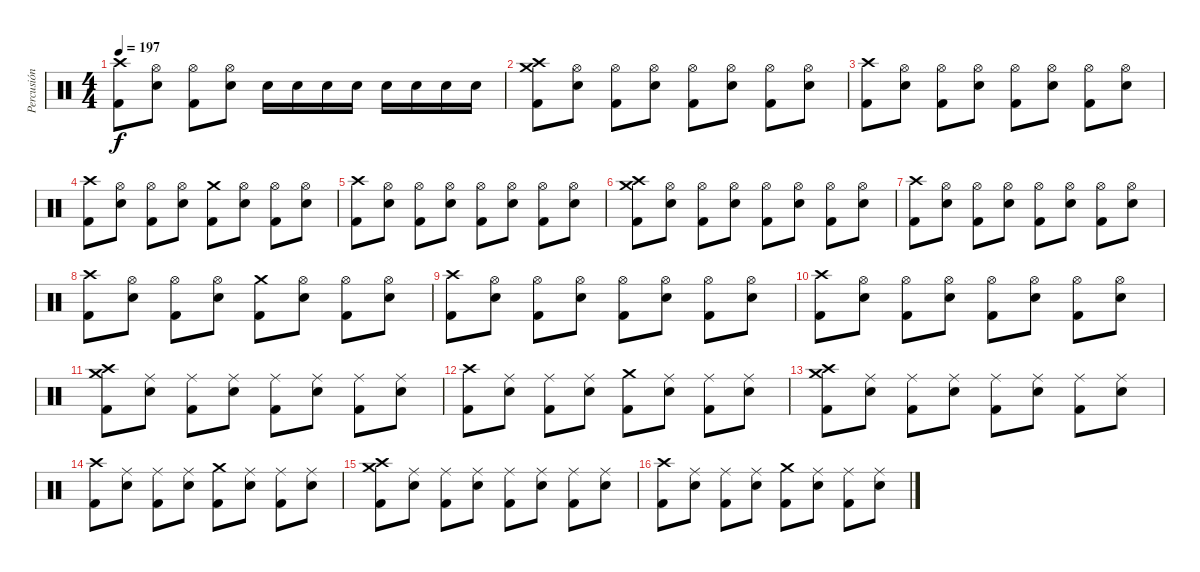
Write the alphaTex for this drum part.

\track ("Percusión" "Percusión") {instrument percussion}
\staff {score}
\articulation defaults
\ts (4 4)
\tempo 197
\clef neutral
\ks c
("Crash high (hit)" "Kick (hit) 2").8{dy f} ("Hi-Hat (open)" "Electric Snare (hit)").8 ("Hi-Hat (open)" "Kick (hit) 2").8 ("Hi-Hat (open)" "Electric Snare (hit)").8 "Electric Snare (hit)".16 "Electric Snare (hit)".16 "Electric Snare (hit)".16 "Electric Snare (hit)".16 "Electric Snare (hit)".16 "Electric Snare (hit)".16 "Electric Snare (hit)".16 "Electric Snare (hit)".16 |
("Crash high (hit)" "Crash medium (hit)" "Kick (hit) 2").8 ("Hi-Hat (open)" "Electric Snare (hit)").8 ("Hi-Hat (open)" "Kick (hit) 2").8 ("Hi-Hat (open)" "Electric Snare (hit)").8 ("Hi-Hat (open)" "Kick (hit) 2").8 ("Hi-Hat (open)" "Electric Snare (hit)").8 ("Hi-Hat (open)" "Kick (hit) 2").8 ("Hi-Hat (open)" "Electric Snare (hit)").8 |
("Crash high (hit)" "Kick (hit) 2").8 ("Hi-Hat (open)" "Electric Snare (hit)").8 ("Hi-Hat (open)" "Kick (hit) 2").8 ("Hi-Hat (open)" "Electric Snare (hit)").8 ("Hi-Hat (open)" "Kick (hit) 2").8 ("Hi-Hat (open)" "Electric Snare (hit)").8 ("Hi-Hat (open)" "Kick (hit) 2").8 ("Hi-Hat (open)" "Electric Snare (hit)").8 |
("Crash high (hit)" "Kick (hit) 2").8 ("Hi-Hat (open)" "Electric Snare (hit)").8 ("Hi-Hat (open)" "Kick (hit) 2").8 ("Hi-Hat (open)" "Electric Snare (hit)").8 ("Crash medium (hit)" "Kick (hit) 2").8 ("Hi-Hat (open)" "Electric Snare (hit)").8 ("Hi-Hat (open)" "Kick (hit) 2").8 ("Hi-Hat (open)" "Electric Snare (hit)").8 |
("Crash high (hit)" "Kick (hit) 2").8 ("Hi-Hat (open)" "Electric Snare (hit)").8 ("Hi-Hat (open)" "Kick (hit) 2").8 ("Hi-Hat (open)" "Electric Snare (hit)").8 ("Hi-Hat (open)" "Kick (hit) 2").8 ("Hi-Hat (open)" "Electric Snare (hit)").8 ("Hi-Hat (open)" "Kick (hit) 2").8 ("Hi-Hat (open)" "Electric Snare (hit)").8 |
("Crash high (hit)" "Crash medium (hit)" "Kick (hit) 2").8 ("Hi-Hat (open)" "Electric Snare (hit)").8 ("Hi-Hat (open)" "Kick (hit) 2").8 ("Hi-Hat (open)" "Electric Snare (hit)").8 ("Hi-Hat (open)" "Kick (hit) 2").8 ("Hi-Hat (open)" "Electric Snare (hit)").8 ("Hi-Hat (open)" "Kick (hit) 2").8 ("Hi-Hat (open)" "Electric Snare (hit)").8 |
("Crash high (hit)" "Kick (hit) 2").8 ("Hi-Hat (open)" "Electric Snare (hit)").8 ("Hi-Hat (open)" "Kick (hit) 2").8 ("Hi-Hat (open)" "Electric Snare (hit)").8 ("Hi-Hat (open)" "Kick (hit) 2").8 ("Hi-Hat (open)" "Electric Snare (hit)").8 ("Hi-Hat (open)" "Kick (hit) 2").8 ("Hi-Hat (open)" "Electric Snare (hit)").8 |
("Crash high (hit)" "Kick (hit) 2").8 ("Hi-Hat (open)" "Electric Snare (hit)").8 ("Hi-Hat (open)" "Kick (hit) 2").8 ("Hi-Hat (open)" "Electric Snare (hit)").8 ("Crash medium (hit)" "Kick (hit) 2").8 ("Hi-Hat (open)" "Electric Snare (hit)").8 ("Hi-Hat (open)" "Kick (hit) 2").8 ("Hi-Hat (open)" "Electric Snare (hit)").8 |
("Crash high (hit)" "Kick (hit) 2").8 ("Hi-Hat (open)" "Electric Snare (hit)").8 ("Hi-Hat (open)" "Kick (hit) 2").8 ("Hi-Hat (open)" "Electric Snare (hit)").8 ("Hi-Hat (open)" "Kick (hit) 2").8 ("Hi-Hat (open)" "Electric Snare (hit)").8 ("Hi-Hat (open)" "Kick (hit) 2").8 ("Hi-Hat (open)" "Electric Snare (hit)").8 |
("Crash high (hit)" "Kick (hit) 2").8 ("Hi-Hat (open)" "Electric Snare (hit)").8 ("Hi-Hat (open)" "Kick (hit) 2").8 ("Hi-Hat (open)" "Electric Snare (hit)").8 ("Hi-Hat (open)" "Kick (hit) 2").8 ("Hi-Hat (open)" "Electric Snare (hit)").8 ("Hi-Hat (open)" "Kick (hit) 2").8 ("Hi-Hat (open)" "Electric Snare (hit)").8 |
("Crash high (hit)" "Crash medium (hit)" "Kick (hit) 2").8 ("Ride (middle)" "Electric Snare (hit)").8 ("Ride (middle)" "Kick (hit) 2").8 ("Ride (middle)" "Electric Snare (hit)").8 ("Ride (middle)" "Kick (hit) 2").8 ("Ride (middle)" "Electric Snare (hit)").8 ("Ride (middle)" "Kick (hit) 2").8 ("Ride (middle)" "Electric Snare (hit)").8 |
("Crash high (hit)" "Kick (hit) 2").8 ("Ride (middle)" "Electric Snare (hit)").8 ("Ride (middle)" "Kick (hit) 2").8 ("Ride (middle)" "Electric Snare (hit)").8 ("Crash medium (hit)" "Kick (hit) 2").8 ("Ride (middle)" "Electric Snare (hit)").8 ("Ride (middle)" "Kick (hit) 2").8 ("Ride (middle)" "Electric Snare (hit)").8 |
("Crash high (hit)" "Crash medium (hit)" "Kick (hit) 2").8 ("Ride (middle)" "Electric Snare (hit)").8 ("Ride (middle)" "Kick (hit) 2").8 ("Ride (middle)" "Electric Snare (hit)").8 ("Ride (middle)" "Kick (hit) 2").8 ("Ride (middle)" "Electric Snare (hit)").8 ("Ride (middle)" "Kick (hit) 2").8 ("Ride (middle)" "Electric Snare (hit)").8 |
("Crash high (hit)" "Kick (hit) 2").8 ("Ride (middle)" "Electric Snare (hit)").8 ("Ride (middle)" "Kick (hit) 2").8 ("Ride (middle)" "Electric Snare (hit)").8 ("Crash medium (hit)" "Kick (hit) 2").8 ("Ride (middle)" "Electric Snare (hit)").8 ("Ride (middle)" "Kick (hit) 2").8 ("Ride (middle)" "Electric Snare (hit)").8 |
("Crash high (hit)" "Crash medium (hit)" "Kick (hit) 2").8 ("Ride (middle)" "Electric Snare (hit)").8 ("Ride (middle)" "Kick (hit) 2").8 ("Ride (middle)" "Electric Snare (hit)").8 ("Ride (middle)" "Kick (hit) 2").8 ("Ride (middle)" "Electric Snare (hit)").8 ("Ride (middle)" "Kick (hit) 2").8 ("Ride (middle)" "Electric Snare (hit)").8 |
("Crash high (hit)" "Kick (hit) 2").8 ("Ride (middle)" "Electric Snare (hit)").8 ("Ride (middle)" "Kick (hit) 2").8 ("Ride (middle)" "Electric Snare (hit)").8 ("Crash medium (hit)" "Kick (hit) 2").8 ("Ride (middle)" "Electric Snare (hit)").8 ("Ride (middle)" "Kick (hit) 2").8 ("Ride (middle)" "Electric Snare (hit)").8
